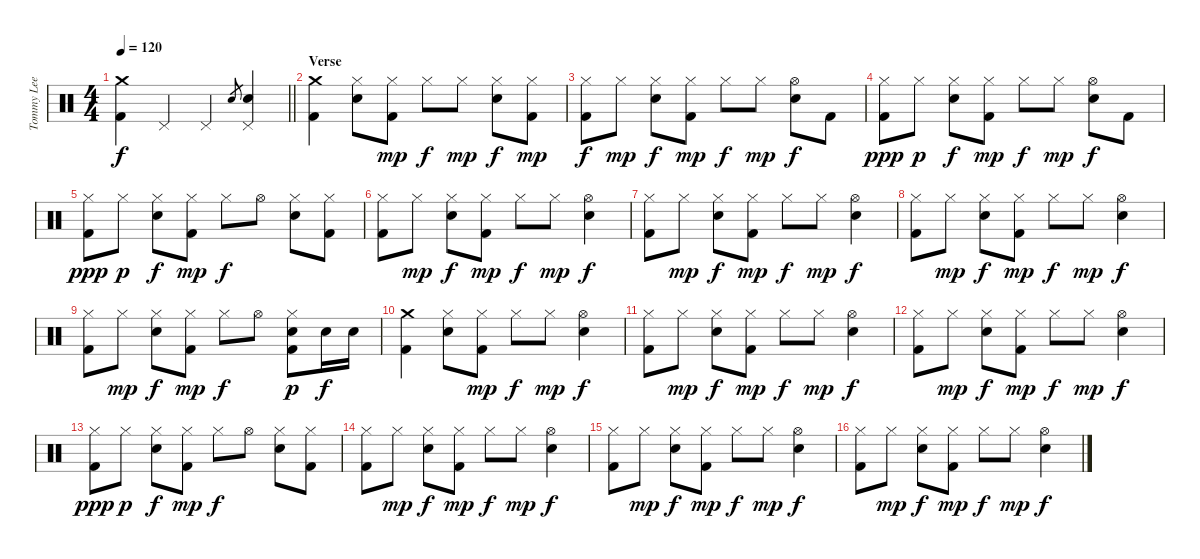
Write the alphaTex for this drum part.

\track ("Tommy Lee - Drums" "Tommy Lee ") {instrument percussion}
\staff {score}
\articulation defaults
\ts (4 4)
\tempo 120
\clef neutral
\barLineRight lightlight
\ks c
("Crash medium (hit)" "Kick (hit) 2").4{dy f} "Pedal Hi-Hat (hit)".4 "Pedal Hi-Hat (hit)".4 "Snare (hit) 2".8{gr} ("Pedal Hi-Hat (hit)" "Snare (hit) 2").4 |
\section ("" "Verse")
("Crash medium (hit)" "Kick (hit) 2").4 ("Hi-Hat (closed)" "Snare (hit) 2").8 ("Hi-Hat (closed)" "Kick (hit) 2").8{dy mp} "Hi-Hat (closed)".8{dy f} "Hi-Hat (closed)".8{dy mp} ("Hi-Hat (closed)" "Snare (hit) 2").8{dy f} ("Hi-Hat (closed)" "Kick (hit) 2").8{dy mp} |
("Hi-Hat (closed)" "Kick (hit) 2").8{dy f} "Hi-Hat (closed)".8{dy mp} ("Hi-Hat (closed)" "Snare (hit) 2").8{dy f} ("Hi-Hat (closed)" "Kick (hit) 2").8{dy mp} "Hi-Hat (closed)".8{dy f} "Hi-Hat (closed)".8{dy mp} ("Hi-Hat (open)" "Snare (hit) 2").8{dy f} "Kick (hit) 2".8 |
("Hi-Hat (closed)" "Kick (hit) 2").8{dy ppp} "Hi-Hat (closed)".8{dy p} ("Hi-Hat (closed)" "Snare (hit) 2").8{dy f} ("Hi-Hat (closed)" "Kick (hit) 2").8{dy mp} "Hi-Hat (closed)".8{dy f} "Hi-Hat (closed)".8{dy mp} ("Hi-Hat (open)" "Snare (hit) 2").8{dy f} "Kick (hit) 2".8 |
("Hi-Hat (closed)" "Kick (hit) 2").8{dy ppp} "Hi-Hat (closed)".8{dy p} ("Hi-Hat (closed)" "Snare (hit) 2").8{dy f} ("Hi-Hat (closed)" "Kick (hit) 2").8{dy mp} "Hi-Hat (closed)".8{dy f} "Hi-Hat (open)".8 ("Hi-Hat (closed)" "Snare (hit) 2").8 ("Hi-Hat (closed)" "Kick (hit) 2").8 |
("Hi-Hat (closed)" "Kick (hit) 2").8 "Hi-Hat (closed)".8{dy mp} ("Hi-Hat (closed)" "Snare (hit) 2").8{dy f} ("Hi-Hat (closed)" "Kick (hit) 2").8{dy mp} "Hi-Hat (closed)".8{dy f} "Hi-Hat (closed)".8{dy mp} ("Hi-Hat (open)" "Snare (hit) 2").4{dy f} |
("Hi-Hat (closed)" "Kick (hit) 2").8 "Hi-Hat (closed)".8{dy mp} ("Hi-Hat (closed)" "Snare (hit) 2").8{dy f} ("Hi-Hat (closed)" "Kick (hit) 2").8{dy mp} "Hi-Hat (closed)".8{dy f} "Hi-Hat (closed)".8{dy mp} ("Hi-Hat (open)" "Snare (hit) 2").4{dy f} |
("Hi-Hat (closed)" "Kick (hit) 2").8 "Hi-Hat (closed)".8{dy mp} ("Hi-Hat (closed)" "Snare (hit) 2").8{dy f} ("Hi-Hat (closed)" "Kick (hit) 2").8{dy mp} "Hi-Hat (closed)".8{dy f} "Hi-Hat (closed)".8{dy mp} ("Hi-Hat (open)" "Snare (hit) 2").4{dy f} |
("Hi-Hat (closed)" "Kick (hit) 2").8 "Hi-Hat (closed)".8{dy mp} ("Hi-Hat (closed)" "Snare (hit) 2").8{dy f} ("Hi-Hat (closed)" "Kick (hit) 2").8{dy mp} "Hi-Hat (closed)".8{dy f} "Hi-Hat (open)".8 ("Hi-Hat (closed)" "Snare (hit) 2" "Kick (hit) 2").8{dy p} "Snare (hit) 2".16{dy f} "Snare (hit) 2".16 |
("Crash medium (hit)" "Kick (hit) 2").4 ("Hi-Hat (closed)" "Snare (hit) 2").8 ("Hi-Hat (closed)" "Kick (hit) 2").8{dy mp} "Hi-Hat (closed)".8{dy f} "Hi-Hat (closed)".8{dy mp} ("Hi-Hat (open)" "Snare (hit) 2").4{dy f} |
("Hi-Hat (closed)" "Kick (hit) 2").8 "Hi-Hat (closed)".8{dy mp} ("Hi-Hat (closed)" "Snare (hit) 2").8{dy f} ("Hi-Hat (closed)" "Kick (hit) 2").8{dy mp} "Hi-Hat (closed)".8{dy f} "Hi-Hat (closed)".8{dy mp} ("Hi-Hat (open)" "Snare (hit) 2").4{dy f} |
("Hi-Hat (closed)" "Kick (hit) 2").8 "Hi-Hat (closed)".8{dy mp} ("Hi-Hat (closed)" "Snare (hit) 2").8{dy f} ("Hi-Hat (closed)" "Kick (hit) 2").8{dy mp} "Hi-Hat (closed)".8{dy f} "Hi-Hat (closed)".8{dy mp} ("Hi-Hat (open)" "Snare (hit) 2").4{dy f} |
("Hi-Hat (closed)" "Kick (hit) 2").8{dy ppp} "Hi-Hat (closed)".8{dy p} ("Hi-Hat (closed)" "Snare (hit) 2").8{dy f} ("Hi-Hat (closed)" "Kick (hit) 2").8{dy mp} "Hi-Hat (closed)".8{dy f} "Hi-Hat (open)".8 ("Hi-Hat (closed)" "Snare (hit) 2").8 ("Hi-Hat (closed)" "Kick (hit) 2").8 |
("Hi-Hat (closed)" "Kick (hit) 2").8 "Hi-Hat (closed)".8{dy mp} ("Hi-Hat (closed)" "Snare (hit) 2").8{dy f} ("Hi-Hat (closed)" "Kick (hit) 2").8{dy mp} "Hi-Hat (closed)".8{dy f} "Hi-Hat (closed)".8{dy mp} ("Hi-Hat (open)" "Snare (hit) 2").4{dy f} |
("Hi-Hat (closed)" "Kick (hit) 2").8 "Hi-Hat (closed)".8{dy mp} ("Hi-Hat (closed)" "Snare (hit) 2").8{dy f} ("Hi-Hat (closed)" "Kick (hit) 2").8{dy mp} "Hi-Hat (closed)".8{dy f} "Hi-Hat (closed)".8{dy mp} ("Hi-Hat (open)" "Snare (hit) 2").4{dy f} |
("Hi-Hat (closed)" "Kick (hit) 2").8 "Hi-Hat (closed)".8{dy mp} ("Hi-Hat (closed)" "Snare (hit) 2").8{dy f} ("Hi-Hat (closed)" "Kick (hit) 2").8{dy mp} "Hi-Hat (closed)".8{dy f} "Hi-Hat (closed)".8{dy mp} ("Hi-Hat (open)" "Snare (hit) 2").4{dy f}
